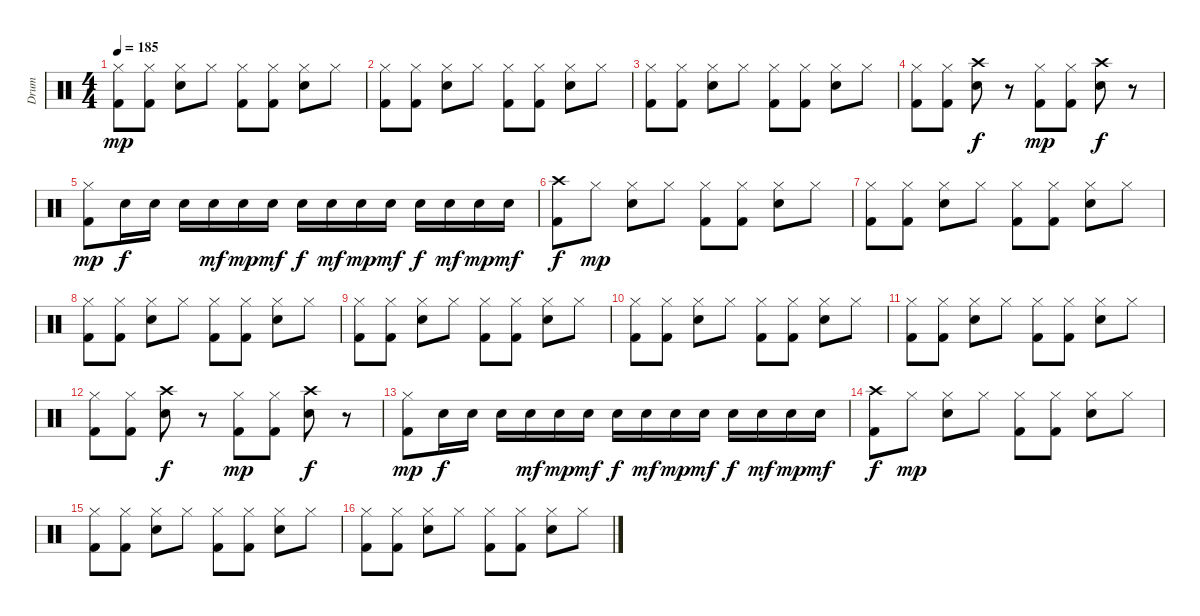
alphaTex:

\track ("Drum" "Drum") {instrument percussion}
\staff {score}
\articulation defaults
\ts (4 4)
\tempo 185
\clef neutral
\ks c
("Hi-Hat (closed)" "Kick (hit) 2").8{dy mp} ("Hi-Hat (closed)" "Kick (hit) 2").8 ("Hi-Hat (closed)" "Electric Snare (hit)").8 "Hi-Hat (closed)".8 ("Hi-Hat (closed)" "Kick (hit) 2").8 ("Hi-Hat (closed)" "Kick (hit) 2").8 ("Hi-Hat (closed)" "Electric Snare (hit)").8 "Hi-Hat (closed)".8 |
("Hi-Hat (closed)" "Kick (hit) 2").8 ("Hi-Hat (closed)" "Kick (hit) 2").8 ("Hi-Hat (closed)" "Electric Snare (hit)").8 "Hi-Hat (closed)".8 ("Hi-Hat (closed)" "Kick (hit) 2").8 ("Hi-Hat (closed)" "Kick (hit) 2").8 ("Hi-Hat (closed)" "Electric Snare (hit)").8 "Hi-Hat (closed)".8 |
("Hi-Hat (closed)" "Kick (hit) 2").8 ("Hi-Hat (closed)" "Kick (hit) 2").8 ("Hi-Hat (closed)" "Electric Snare (hit)").8 "Hi-Hat (closed)".8 ("Hi-Hat (closed)" "Kick (hit) 2").8 ("Hi-Hat (closed)" "Kick (hit) 2").8 ("Hi-Hat (closed)" "Electric Snare (hit)").8 "Hi-Hat (closed)".8 |
("Hi-Hat (closed)" "Kick (hit) 2").8 ("Hi-Hat (closed)" "Kick (hit) 2").8 ("Crash high (hit)" "Electric Snare (hit)").8{dy f} r.8 ("Hi-Hat (closed)" "Kick (hit) 2").8{dy mp} ("Hi-Hat (closed)" "Kick (hit) 2").8 ("Crash high (hit)" "Electric Snare (hit)").8{dy f} r.8 |
("Hi-Hat (closed)" "Kick (hit) 2").8{dy mp} "Electric Snare (hit)".16{dy f} "Electric Snare (hit)".16 "Electric Snare (hit)".16 "Electric Snare (hit)".16{dy mf} "Electric Snare (hit)".16{dy mp} "Electric Snare (hit)".16{dy mf} "Electric Snare (hit)".16{dy f} "Electric Snare (hit)".16{dy mf} "Electric Snare (hit)".16{dy mp} "Electric Snare (hit)".16{dy mf} "Electric Snare (hit)".16{dy f} "Electric Snare (hit)".16{dy mf} "Electric Snare (hit)".16{dy mp} "Electric Snare (hit)".16{dy mf} |
("Crash high (hit)" "Kick (hit) 2").8{dy f} "Hi-Hat (closed)".8{dy mp} ("Hi-Hat (closed)" "Electric Snare (hit)").8 "Hi-Hat (closed)".8 ("Hi-Hat (closed)" "Kick (hit) 2").8 ("Hi-Hat (closed)" "Kick (hit) 2").8 ("Hi-Hat (closed)" "Electric Snare (hit)").8 "Hi-Hat (closed)".8 |
("Hi-Hat (closed)" "Kick (hit) 2").8 ("Hi-Hat (closed)" "Kick (hit) 2").8 ("Hi-Hat (closed)" "Electric Snare (hit)").8 "Hi-Hat (closed)".8 ("Hi-Hat (closed)" "Kick (hit) 2").8 ("Hi-Hat (closed)" "Kick (hit) 2").8 ("Hi-Hat (closed)" "Electric Snare (hit)").8 "Hi-Hat (closed)".8 |
("Hi-Hat (closed)" "Kick (hit) 2").8 ("Hi-Hat (closed)" "Kick (hit) 2").8 ("Hi-Hat (closed)" "Electric Snare (hit)").8 "Hi-Hat (closed)".8 ("Hi-Hat (closed)" "Kick (hit) 2").8 ("Hi-Hat (closed)" "Kick (hit) 2").8 ("Hi-Hat (closed)" "Electric Snare (hit)").8 "Hi-Hat (closed)".8 |
("Hi-Hat (closed)" "Kick (hit) 2").8 ("Hi-Hat (closed)" "Kick (hit) 2").8 ("Hi-Hat (closed)" "Electric Snare (hit)").8 "Hi-Hat (closed)".8 ("Hi-Hat (closed)" "Kick (hit) 2").8 ("Hi-Hat (closed)" "Kick (hit) 2").8 ("Hi-Hat (closed)" "Electric Snare (hit)").8 "Hi-Hat (closed)".8 |
("Hi-Hat (closed)" "Kick (hit) 2").8 ("Hi-Hat (closed)" "Kick (hit) 2").8 ("Hi-Hat (closed)" "Electric Snare (hit)").8 "Hi-Hat (closed)".8 ("Hi-Hat (closed)" "Kick (hit) 2").8 ("Hi-Hat (closed)" "Kick (hit) 2").8 ("Hi-Hat (closed)" "Electric Snare (hit)").8 "Hi-Hat (closed)".8 |
("Hi-Hat (closed)" "Kick (hit) 2").8 ("Hi-Hat (closed)" "Kick (hit) 2").8 ("Hi-Hat (closed)" "Electric Snare (hit)").8 "Hi-Hat (closed)".8 ("Hi-Hat (closed)" "Kick (hit) 2").8 ("Hi-Hat (closed)" "Kick (hit) 2").8 ("Hi-Hat (closed)" "Electric Snare (hit)").8 "Hi-Hat (closed)".8 |
("Hi-Hat (closed)" "Kick (hit) 2").8 ("Hi-Hat (closed)" "Kick (hit) 2").8 ("Crash high (hit)" "Electric Snare (hit)").8{dy f} r.8 ("Hi-Hat (closed)" "Kick (hit) 2").8{dy mp} ("Hi-Hat (closed)" "Kick (hit) 2").8 ("Crash high (hit)" "Electric Snare (hit)").8{dy f} r.8 |
("Hi-Hat (closed)" "Kick (hit) 2").8{dy mp} "Electric Snare (hit)".16{dy f} "Electric Snare (hit)".16 "Electric Snare (hit)".16 "Electric Snare (hit)".16{dy mf} "Electric Snare (hit)".16{dy mp} "Electric Snare (hit)".16{dy mf} "Electric Snare (hit)".16{dy f} "Electric Snare (hit)".16{dy mf} "Electric Snare (hit)".16{dy mp} "Electric Snare (hit)".16{dy mf} "Electric Snare (hit)".16{dy f} "Electric Snare (hit)".16{dy mf} "Electric Snare (hit)".16{dy mp} "Electric Snare (hit)".16{dy mf} |
("Crash high (hit)" "Kick (hit) 2").8{dy f} "Hi-Hat (closed)".8{dy mp} ("Hi-Hat (closed)" "Electric Snare (hit)").8 "Hi-Hat (closed)".8 ("Hi-Hat (closed)" "Kick (hit) 2").8 ("Hi-Hat (closed)" "Kick (hit) 2").8 ("Hi-Hat (closed)" "Electric Snare (hit)").8 "Hi-Hat (closed)".8 |
("Hi-Hat (closed)" "Kick (hit) 2").8 ("Hi-Hat (closed)" "Kick (hit) 2").8 ("Hi-Hat (closed)" "Electric Snare (hit)").8 "Hi-Hat (closed)".8 ("Hi-Hat (closed)" "Kick (hit) 2").8 ("Hi-Hat (closed)" "Kick (hit) 2").8 ("Hi-Hat (closed)" "Electric Snare (hit)").8 "Hi-Hat (closed)".8 |
("Hi-Hat (closed)" "Kick (hit) 2").8 ("Hi-Hat (closed)" "Kick (hit) 2").8 ("Hi-Hat (closed)" "Electric Snare (hit)").8 "Hi-Hat (closed)".8 ("Hi-Hat (closed)" "Kick (hit) 2").8 ("Hi-Hat (closed)" "Kick (hit) 2").8 ("Hi-Hat (closed)" "Electric Snare (hit)").8 "Hi-Hat (closed)".8
